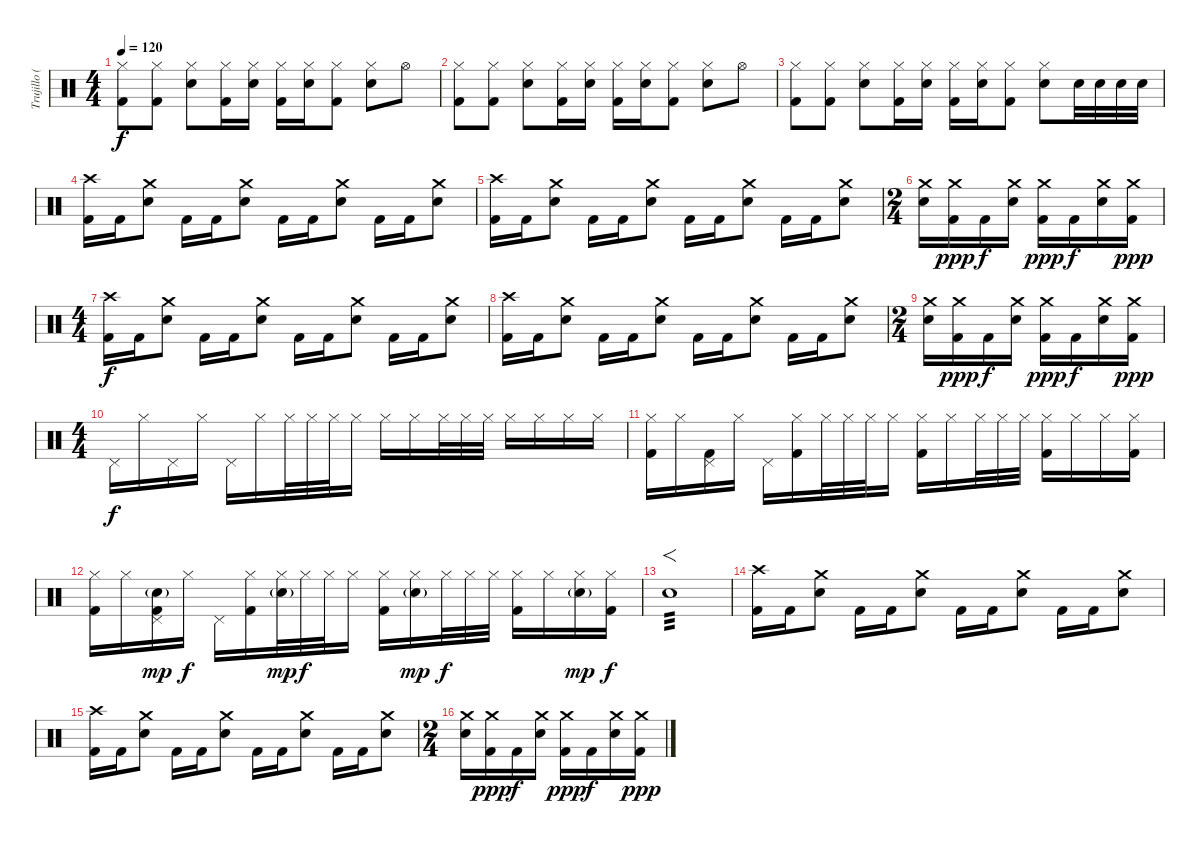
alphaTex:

\track ("Trujillo (Percussion)" "Trujillo (") {instrument percussion}
\staff {score}
\articulation defaults
\ts (4 4)
\tempo 120
\clef neutral
\ks c
("Hi-Hat (closed)" "Kick (hit) 2").8{dy f} ("Hi-Hat (closed)" "Kick (hit) 2").8 ("Hi-Hat (closed)" "Electric Snare (hit)").8 ("Hi-Hat (closed)" "Kick (hit) 2").16 ("Hi-Hat (closed)" "Electric Snare (hit)").16 ("Hi-Hat (closed)" "Kick (hit) 2").16 ("Hi-Hat (closed)" "Electric Snare (hit)").16 ("Hi-Hat (closed)" "Kick (hit) 2").8 ("Hi-Hat (closed)" "Electric Snare (hit)").8 "Hi-Hat (open)".8 |
("Hi-Hat (closed)" "Kick (hit) 2").8 ("Hi-Hat (closed)" "Kick (hit) 2").8 ("Hi-Hat (closed)" "Electric Snare (hit)").8 ("Hi-Hat (closed)" "Kick (hit) 2").16 ("Hi-Hat (closed)" "Electric Snare (hit)").16 ("Hi-Hat (closed)" "Kick (hit) 2").16 ("Hi-Hat (closed)" "Electric Snare (hit)").16 ("Hi-Hat (closed)" "Kick (hit) 2").8 ("Hi-Hat (closed)" "Electric Snare (hit)").8 "Hi-Hat (open)".8 |
("Hi-Hat (closed)" "Kick (hit) 2").8 ("Hi-Hat (closed)" "Kick (hit) 2").8 ("Hi-Hat (closed)" "Electric Snare (hit)").8 ("Hi-Hat (closed)" "Kick (hit) 2").16 ("Hi-Hat (closed)" "Electric Snare (hit)").16 ("Hi-Hat (closed)" "Kick (hit) 2").16 ("Hi-Hat (closed)" "Electric Snare (hit)").16 ("Hi-Hat (closed)" "Kick (hit) 2").8 ("Hi-Hat (closed)" "Electric Snare (hit)").8 "Electric Snare (hit)".32 "Electric Snare (hit)".32 "Electric Snare (hit)".32 "Electric Snare (hit)".32 |
("Crash high (hit)" "Kick (hit) 2").16 "Kick (hit) 2".16 ("Crash medium (hit)" "Electric Snare (hit)").8 "Kick (hit) 2".16 "Kick (hit) 2".16 ("Crash medium (hit)" "Electric Snare (hit)").8 "Kick (hit) 2".16 "Kick (hit) 2".16 ("Crash medium (hit)" "Electric Snare (hit)").8 "Kick (hit) 2".16 "Kick (hit) 2".16 ("Crash medium (hit)" "Electric Snare (hit)").8 |
("Crash high (hit)" "Kick (hit) 2").16 "Kick (hit) 2".16 ("Crash medium (hit)" "Electric Snare (hit)").8 "Kick (hit) 2".16 "Kick (hit) 2".16 ("Crash medium (hit)" "Electric Snare (hit)").8 "Kick (hit) 2".16 "Kick (hit) 2".16 ("Crash medium (hit)" "Electric Snare (hit)").8 "Kick (hit) 2".16 "Kick (hit) 2".16 ("Crash medium (hit)" "Electric Snare (hit)").8 |
\ts (2 4)
("Crash medium (hit)" "Electric Snare (hit)").16 ("Crash medium (hit)" "Kick (hit) 2").16{dy ppp} "Kick (hit) 2".16{dy f} ("Crash medium (hit)" "Electric Snare (hit)").16 ("Crash medium (hit)" "Kick (hit) 2").16{dy ppp} "Kick (hit) 2".16{dy f} ("Crash medium (hit)" "Electric Snare (hit)").16 ("Crash medium (hit)" "Kick (hit) 2").16{dy ppp} |
\ts (4 4)
("Crash high (hit)" "Kick (hit) 2").16{dy f} "Kick (hit) 2".16 ("Crash medium (hit)" "Electric Snare (hit)").8 "Kick (hit) 2".16 "Kick (hit) 2".16 ("Crash medium (hit)" "Electric Snare (hit)").8 "Kick (hit) 2".16 "Kick (hit) 2".16 ("Crash medium (hit)" "Electric Snare (hit)").8 "Kick (hit) 2".16 "Kick (hit) 2".16 ("Crash medium (hit)" "Electric Snare (hit)").8 |
("Crash high (hit)" "Kick (hit) 2").16 "Kick (hit) 2".16 ("Crash medium (hit)" "Electric Snare (hit)").8 "Kick (hit) 2".16 "Kick (hit) 2".16 ("Crash medium (hit)" "Electric Snare (hit)").8 "Kick (hit) 2".16 "Kick (hit) 2".16 ("Crash medium (hit)" "Electric Snare (hit)").8 "Kick (hit) 2".16 "Kick (hit) 2".16 ("Crash medium (hit)" "Electric Snare (hit)").8 |
\ts (2 4)
("Crash medium (hit)" "Electric Snare (hit)").16 ("Crash medium (hit)" "Kick (hit) 2").16{dy ppp} "Kick (hit) 2".16{dy f} ("Crash medium (hit)" "Electric Snare (hit)").16 ("Crash medium (hit)" "Kick (hit) 2").16{dy ppp} "Kick (hit) 2".16{dy f} ("Crash medium (hit)" "Electric Snare (hit)").16 ("Crash medium (hit)" "Kick (hit) 2").16{dy ppp} |
\ts (4 4)
"Pedal Hi-Hat (hit)".16{dy f} "Hi-Hat (closed)".16 "Pedal Hi-Hat (hit)".16 "Hi-Hat (closed)".16 "Pedal Hi-Hat (hit)".16 "Hi-Hat (closed)".16 "Hi-Hat (closed)".32 "Hi-Hat (closed)".32 "Hi-Hat (closed)".32 "Hi-Hat (closed)".16 "Hi-Hat (closed)".16 "Hi-Hat (closed)".16 "Hi-Hat (closed)".32 "Hi-Hat (closed)".32 "Hi-Hat (closed)".32 "Hi-Hat (closed)".16 "Hi-Hat (closed)".16 "Hi-Hat (closed)".16 "Hi-Hat (closed)".16 |
("Hi-Hat (closed)" "Kick (hit) 2").16 "Hi-Hat (closed)".16 ("Pedal Hi-Hat (hit)" "Kick (hit) 2").16 "Hi-Hat (closed)".16 "Pedal Hi-Hat (hit)".16 ("Hi-Hat (closed)" "Kick (hit) 2").16 "Hi-Hat (closed)".32 "Hi-Hat (closed)".32 "Hi-Hat (closed)".32 "Hi-Hat (closed)".16 ("Hi-Hat (closed)" "Kick (hit) 2").16 "Hi-Hat (closed)".16 "Hi-Hat (closed)".32 "Hi-Hat (closed)".32 "Hi-Hat (closed)".32 ("Hi-Hat (closed)" "Kick (hit) 2").16 "Hi-Hat (closed)".16 "Hi-Hat (closed)".16 ("Hi-Hat (closed)" "Kick (hit) 2").16 |
("Hi-Hat (closed)" "Kick (hit) 2").16 "Hi-Hat (closed)".16 ("Pedal Hi-Hat (hit)" "Electric Snare (hit)"{g} "Kick (hit) 2").16{dy mp} "Hi-Hat (closed)".16{dy f} "Pedal Hi-Hat (hit)".16 ("Hi-Hat (closed)" "Kick (hit) 2").16 ("Hi-Hat (closed)" "Electric Snare (hit)"{g}).32{dy mp} "Hi-Hat (closed)".32{dy f} "Hi-Hat (closed)".32 "Hi-Hat (closed)".16 ("Hi-Hat (closed)" "Kick (hit) 2").16 ("Hi-Hat (closed)" "Electric Snare (hit)"{g}).16{dy mp} "Hi-Hat (closed)".32{dy f} "Hi-Hat (closed)".32 "Hi-Hat (closed)".32 ("Hi-Hat (closed)" "Kick (hit) 2").16 "Hi-Hat (closed)".16 ("Hi-Hat (closed)" "Electric Snare (hit)"{g}).16{dy mp} ("Hi-Hat (closed)" "Kick (hit) 2").16{dy f} |
"Electric Snare (hit)".1{f tp 3} |
("Crash high (hit)" "Kick (hit) 2").16 "Kick (hit) 2".16 ("Crash medium (hit)" "Electric Snare (hit)").8 "Kick (hit) 2".16 "Kick (hit) 2".16 ("Crash medium (hit)" "Electric Snare (hit)").8 "Kick (hit) 2".16 "Kick (hit) 2".16 ("Crash medium (hit)" "Electric Snare (hit)").8 "Kick (hit) 2".16 "Kick (hit) 2".16 ("Crash medium (hit)" "Electric Snare (hit)").8 |
("Crash high (hit)" "Kick (hit) 2").16 "Kick (hit) 2".16 ("Crash medium (hit)" "Electric Snare (hit)").8 "Kick (hit) 2".16 "Kick (hit) 2".16 ("Crash medium (hit)" "Electric Snare (hit)").8 "Kick (hit) 2".16 "Kick (hit) 2".16 ("Crash medium (hit)" "Electric Snare (hit)").8 "Kick (hit) 2".16 "Kick (hit) 2".16 ("Crash medium (hit)" "Electric Snare (hit)").8 |
\ts (2 4)
("Crash medium (hit)" "Electric Snare (hit)").16 ("Crash medium (hit)" "Kick (hit) 2").16{dy ppp} "Kick (hit) 2".16{dy f} ("Crash medium (hit)" "Electric Snare (hit)").16 ("Crash medium (hit)" "Kick (hit) 2").16{dy ppp} "Kick (hit) 2".16{dy f} ("Crash medium (hit)" "Electric Snare (hit)").16 ("Crash medium (hit)" "Kick (hit) 2").16{dy ppp}
